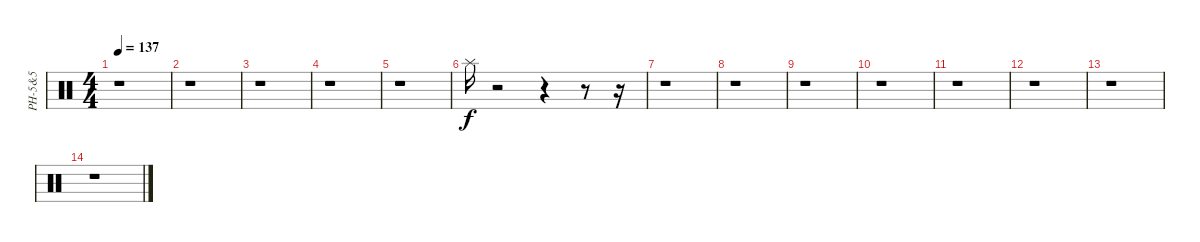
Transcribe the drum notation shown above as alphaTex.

\track ("PH-5&5" "PH-5&5") {instrument percussion}
\staff {score}
\articulation defaults
\ts (4 4)
\tempo 137
\clef neutral
\ks c
r.1{dy f} |
r.1 |
r.1 |
r.1 |
r.1 |
"Splash (hit)".16 r.2 r.4 r.8 r.16 |
r.1 |
r.1 |
r.1 |
r.1 |
r.1 |
r.1 |
r.1 |
r.1
